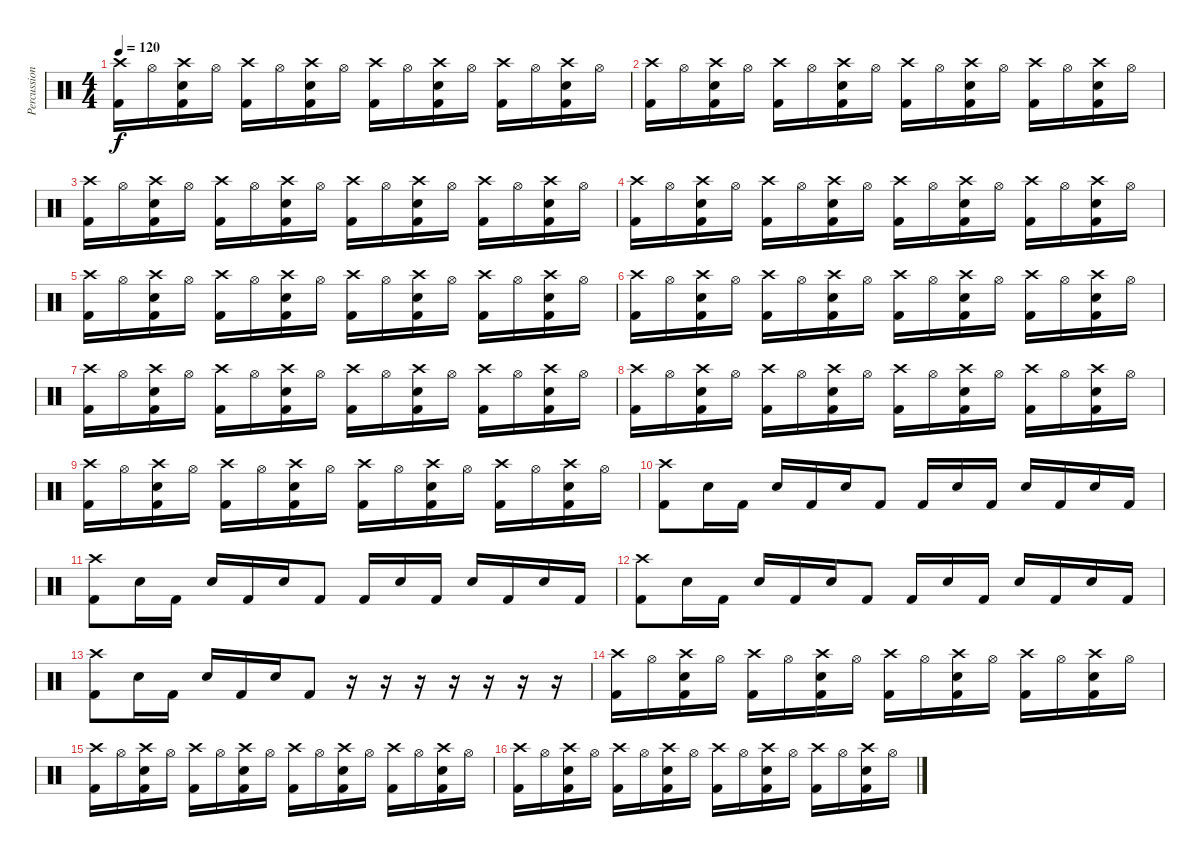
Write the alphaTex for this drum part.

\track ("Percussion" "Percussion") {instrument percussion}
\staff {score}
\articulation defaults
\ts (4 4)
\tempo 120
\clef neutral
\ks c
("Crash high (hit)" "Kick (hit) 2").16{dy f} "Hi-Hat (open)".16 ("Crash high (hit)" "Electric Snare (hit)" "Kick (hit) 2").16 "Hi-Hat (open)".16 ("Crash high (hit)" "Kick (hit) 2").16 "Hi-Hat (open)".16 ("Crash high (hit)" "Electric Snare (hit)" "Kick (hit) 2").16 "Hi-Hat (open)".16 ("Crash high (hit)" "Kick (hit) 2").16 "Hi-Hat (open)".16 ("Crash high (hit)" "Electric Snare (hit)" "Kick (hit) 2").16 "Hi-Hat (open)".16 ("Crash high (hit)" "Kick (hit) 2").16 "Hi-Hat (open)".16 ("Crash high (hit)" "Electric Snare (hit)" "Kick (hit) 2").16 "Hi-Hat (open)".16 |
("Crash high (hit)" "Kick (hit) 2").16 "Hi-Hat (open)".16 ("Crash high (hit)" "Electric Snare (hit)" "Kick (hit) 2").16 "Hi-Hat (open)".16 ("Crash high (hit)" "Kick (hit) 2").16 "Hi-Hat (open)".16 ("Crash high (hit)" "Electric Snare (hit)" "Kick (hit) 2").16 "Hi-Hat (open)".16 ("Crash high (hit)" "Kick (hit) 2").16 "Hi-Hat (open)".16 ("Crash high (hit)" "Electric Snare (hit)" "Kick (hit) 2").16 "Hi-Hat (open)".16 ("Crash high (hit)" "Kick (hit) 2").16 "Hi-Hat (open)".16 ("Crash high (hit)" "Electric Snare (hit)" "Kick (hit) 2").16 "Hi-Hat (open)".16 |
("Crash high (hit)" "Kick (hit) 2").16 "Hi-Hat (open)".16 ("Crash high (hit)" "Electric Snare (hit)" "Kick (hit) 2").16 "Hi-Hat (open)".16 ("Crash high (hit)" "Kick (hit) 2").16 "Hi-Hat (open)".16 ("Crash high (hit)" "Electric Snare (hit)" "Kick (hit) 2").16 "Hi-Hat (open)".16 ("Crash high (hit)" "Kick (hit) 2").16 "Hi-Hat (open)".16 ("Crash high (hit)" "Electric Snare (hit)" "Kick (hit) 2").16 "Hi-Hat (open)".16 ("Crash high (hit)" "Kick (hit) 2").16 "Hi-Hat (open)".16 ("Crash high (hit)" "Electric Snare (hit)" "Kick (hit) 2").16 "Hi-Hat (open)".16 |
("Crash high (hit)" "Kick (hit) 2").16 "Hi-Hat (open)".16 ("Crash high (hit)" "Electric Snare (hit)" "Kick (hit) 2").16 "Hi-Hat (open)".16 ("Crash high (hit)" "Kick (hit) 2").16 "Hi-Hat (open)".16 ("Crash high (hit)" "Electric Snare (hit)" "Kick (hit) 2").16 "Hi-Hat (open)".16 ("Crash high (hit)" "Kick (hit) 2").16 "Hi-Hat (open)".16 ("Crash high (hit)" "Electric Snare (hit)" "Kick (hit) 2").16 "Hi-Hat (open)".16 ("Crash high (hit)" "Kick (hit) 2").16 "Hi-Hat (open)".16 ("Crash high (hit)" "Electric Snare (hit)" "Kick (hit) 2").16 "Hi-Hat (open)".16 |
("Crash high (hit)" "Kick (hit) 2").16 "Hi-Hat (open)".16 ("Crash high (hit)" "Electric Snare (hit)" "Kick (hit) 2").16 "Hi-Hat (open)".16 ("Crash high (hit)" "Kick (hit) 2").16 "Hi-Hat (open)".16 ("Crash high (hit)" "Electric Snare (hit)" "Kick (hit) 2").16 "Hi-Hat (open)".16 ("Crash high (hit)" "Kick (hit) 2").16 "Hi-Hat (open)".16 ("Crash high (hit)" "Electric Snare (hit)" "Kick (hit) 2").16 "Hi-Hat (open)".16 ("Crash high (hit)" "Kick (hit) 2").16 "Hi-Hat (open)".16 ("Crash high (hit)" "Electric Snare (hit)" "Kick (hit) 2").16 "Hi-Hat (open)".16 |
("Crash high (hit)" "Kick (hit) 2").16 "Hi-Hat (open)".16 ("Crash high (hit)" "Electric Snare (hit)" "Kick (hit) 2").16 "Hi-Hat (open)".16 ("Crash high (hit)" "Kick (hit) 2").16 "Hi-Hat (open)".16 ("Crash high (hit)" "Electric Snare (hit)" "Kick (hit) 2").16 "Hi-Hat (open)".16 ("Crash high (hit)" "Kick (hit) 2").16 "Hi-Hat (open)".16 ("Crash high (hit)" "Electric Snare (hit)" "Kick (hit) 2").16 "Hi-Hat (open)".16 ("Crash high (hit)" "Kick (hit) 2").16 "Hi-Hat (open)".16 ("Crash high (hit)" "Electric Snare (hit)" "Kick (hit) 2").16 "Hi-Hat (open)".16 |
("Crash high (hit)" "Kick (hit) 2").16 "Hi-Hat (open)".16 ("Crash high (hit)" "Electric Snare (hit)" "Kick (hit) 2").16 "Hi-Hat (open)".16 ("Crash high (hit)" "Kick (hit) 2").16 "Hi-Hat (open)".16 ("Crash high (hit)" "Electric Snare (hit)" "Kick (hit) 2").16 "Hi-Hat (open)".16 ("Crash high (hit)" "Kick (hit) 2").16 "Hi-Hat (open)".16 ("Crash high (hit)" "Electric Snare (hit)" "Kick (hit) 2").16 "Hi-Hat (open)".16 ("Crash high (hit)" "Kick (hit) 2").16 "Hi-Hat (open)".16 ("Crash high (hit)" "Electric Snare (hit)" "Kick (hit) 2").16 "Hi-Hat (open)".16 |
("Crash high (hit)" "Kick (hit) 2").16 "Hi-Hat (open)".16 ("Crash high (hit)" "Electric Snare (hit)" "Kick (hit) 2").16 "Hi-Hat (open)".16 ("Crash high (hit)" "Kick (hit) 2").16 "Hi-Hat (open)".16 ("Crash high (hit)" "Electric Snare (hit)" "Kick (hit) 2").16 "Hi-Hat (open)".16 ("Crash high (hit)" "Kick (hit) 2").16 "Hi-Hat (open)".16 ("Crash high (hit)" "Electric Snare (hit)" "Kick (hit) 2").16 "Hi-Hat (open)".16 ("Crash high (hit)" "Kick (hit) 2").16 "Hi-Hat (open)".16 ("Crash high (hit)" "Electric Snare (hit)" "Kick (hit) 2").16 "Hi-Hat (open)".16 |
("Crash high (hit)" "Kick (hit) 2").16 "Hi-Hat (open)".16 ("Crash high (hit)" "Electric Snare (hit)" "Kick (hit) 2").16 "Hi-Hat (open)".16 ("Crash high (hit)" "Kick (hit) 2").16 "Hi-Hat (open)".16 ("Crash high (hit)" "Electric Snare (hit)" "Kick (hit) 2").16 "Hi-Hat (open)".16 ("Crash high (hit)" "Kick (hit) 2").16 "Hi-Hat (open)".16 ("Crash high (hit)" "Electric Snare (hit)" "Kick (hit) 2").16 "Hi-Hat (open)".16 ("Crash high (hit)" "Kick (hit) 2").16 "Hi-Hat (open)".16 ("Crash high (hit)" "Electric Snare (hit)" "Kick (hit) 2").16 "Hi-Hat (open)".16 |
("Crash high (hit)" "Kick (hit) 2").8 "Electric Snare (hit)".16 "Kick (hit) 2".16 "Electric Snare (hit)".16 "Kick (hit) 2".16 "Electric Snare (hit)".16 "Kick (hit) 2".8 "Kick (hit) 2".16 "Electric Snare (hit)".16 "Kick (hit) 2".16 "Electric Snare (hit)".16 "Kick (hit) 2".16 "Electric Snare (hit)".16 "Kick (hit) 2".16 |
("Crash high (hit)" "Kick (hit) 2").8 "Electric Snare (hit)".16 "Kick (hit) 2".16 "Electric Snare (hit)".16 "Kick (hit) 2".16 "Electric Snare (hit)".16 "Kick (hit) 2".8 "Kick (hit) 2".16 "Electric Snare (hit)".16 "Kick (hit) 2".16 "Electric Snare (hit)".16 "Kick (hit) 2".16 "Electric Snare (hit)".16 "Kick (hit) 2".16 |
("Crash high (hit)" "Kick (hit) 2").8 "Electric Snare (hit)".16 "Kick (hit) 2".16 "Electric Snare (hit)".16 "Kick (hit) 2".16 "Electric Snare (hit)".16 "Kick (hit) 2".8 "Kick (hit) 2".16 "Electric Snare (hit)".16 "Kick (hit) 2".16 "Electric Snare (hit)".16 "Kick (hit) 2".16 "Electric Snare (hit)".16 "Kick (hit) 2".16 |
("Crash high (hit)" "Kick (hit) 2").8 "Electric Snare (hit)".16 "Kick (hit) 2".16 "Electric Snare (hit)".16 "Kick (hit) 2".16 "Electric Snare (hit)".16 "Kick (hit) 2".8 r.16 r.16 r.16 r.16 r.16 r.16 r.16 |
("Crash high (hit)" "Kick (hit) 2").16 "Hi-Hat (open)".16 ("Crash high (hit)" "Electric Snare (hit)" "Kick (hit) 2").16 "Hi-Hat (open)".16 ("Crash high (hit)" "Kick (hit) 2").16 "Hi-Hat (open)".16 ("Crash high (hit)" "Electric Snare (hit)" "Kick (hit) 2").16 "Hi-Hat (open)".16 ("Crash high (hit)" "Kick (hit) 2").16 "Hi-Hat (open)".16 ("Crash high (hit)" "Electric Snare (hit)" "Kick (hit) 2").16 "Hi-Hat (open)".16 ("Crash high (hit)" "Kick (hit) 2").16 "Hi-Hat (open)".16 ("Crash high (hit)" "Electric Snare (hit)" "Kick (hit) 2").16 "Hi-Hat (open)".16 |
("Crash high (hit)" "Kick (hit) 2").16 "Hi-Hat (open)".16 ("Crash high (hit)" "Electric Snare (hit)" "Kick (hit) 2").16 "Hi-Hat (open)".16 ("Crash high (hit)" "Kick (hit) 2").16 "Hi-Hat (open)".16 ("Crash high (hit)" "Electric Snare (hit)" "Kick (hit) 2").16 "Hi-Hat (open)".16 ("Crash high (hit)" "Kick (hit) 2").16 "Hi-Hat (open)".16 ("Crash high (hit)" "Electric Snare (hit)" "Kick (hit) 2").16 "Hi-Hat (open)".16 ("Crash high (hit)" "Kick (hit) 2").16 "Hi-Hat (open)".16 ("Crash high (hit)" "Electric Snare (hit)" "Kick (hit) 2").16 "Hi-Hat (open)".16 |
("Crash high (hit)" "Kick (hit) 2").16 "Hi-Hat (open)".16 ("Crash high (hit)" "Electric Snare (hit)" "Kick (hit) 2").16 "Hi-Hat (open)".16 ("Crash high (hit)" "Kick (hit) 2").16 "Hi-Hat (open)".16 ("Crash high (hit)" "Electric Snare (hit)" "Kick (hit) 2").16 "Hi-Hat (open)".16 ("Crash high (hit)" "Kick (hit) 2").16 "Hi-Hat (open)".16 ("Crash high (hit)" "Electric Snare (hit)" "Kick (hit) 2").16 "Hi-Hat (open)".16 ("Crash high (hit)" "Kick (hit) 2").16 "Hi-Hat (open)".16 ("Crash high (hit)" "Electric Snare (hit)" "Kick (hit) 2").16 "Hi-Hat (open)".16
